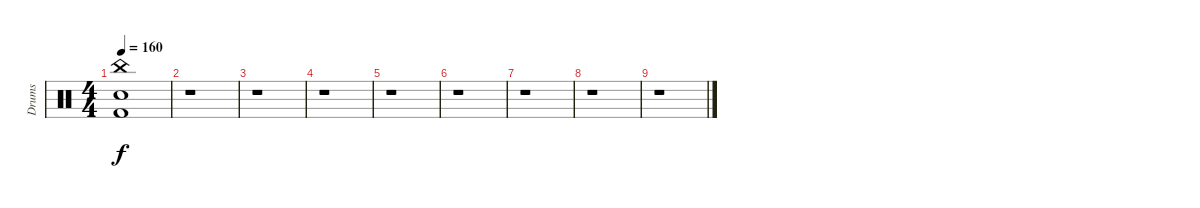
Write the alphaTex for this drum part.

\track ("Drums" "Drums") {instrument percussion}
\staff {score}
\articulation defaults
\ts (4 4)
\tempo 160
\clef neutral
\ks aminor
("China (hit)" "Electric Snare (hit)" "Kick (hit) 2").1{dy f} |
r.1 |
r.1 |
r.1 |
r.1 |
r.1 |
r.1 |
r.1 |
r.1
